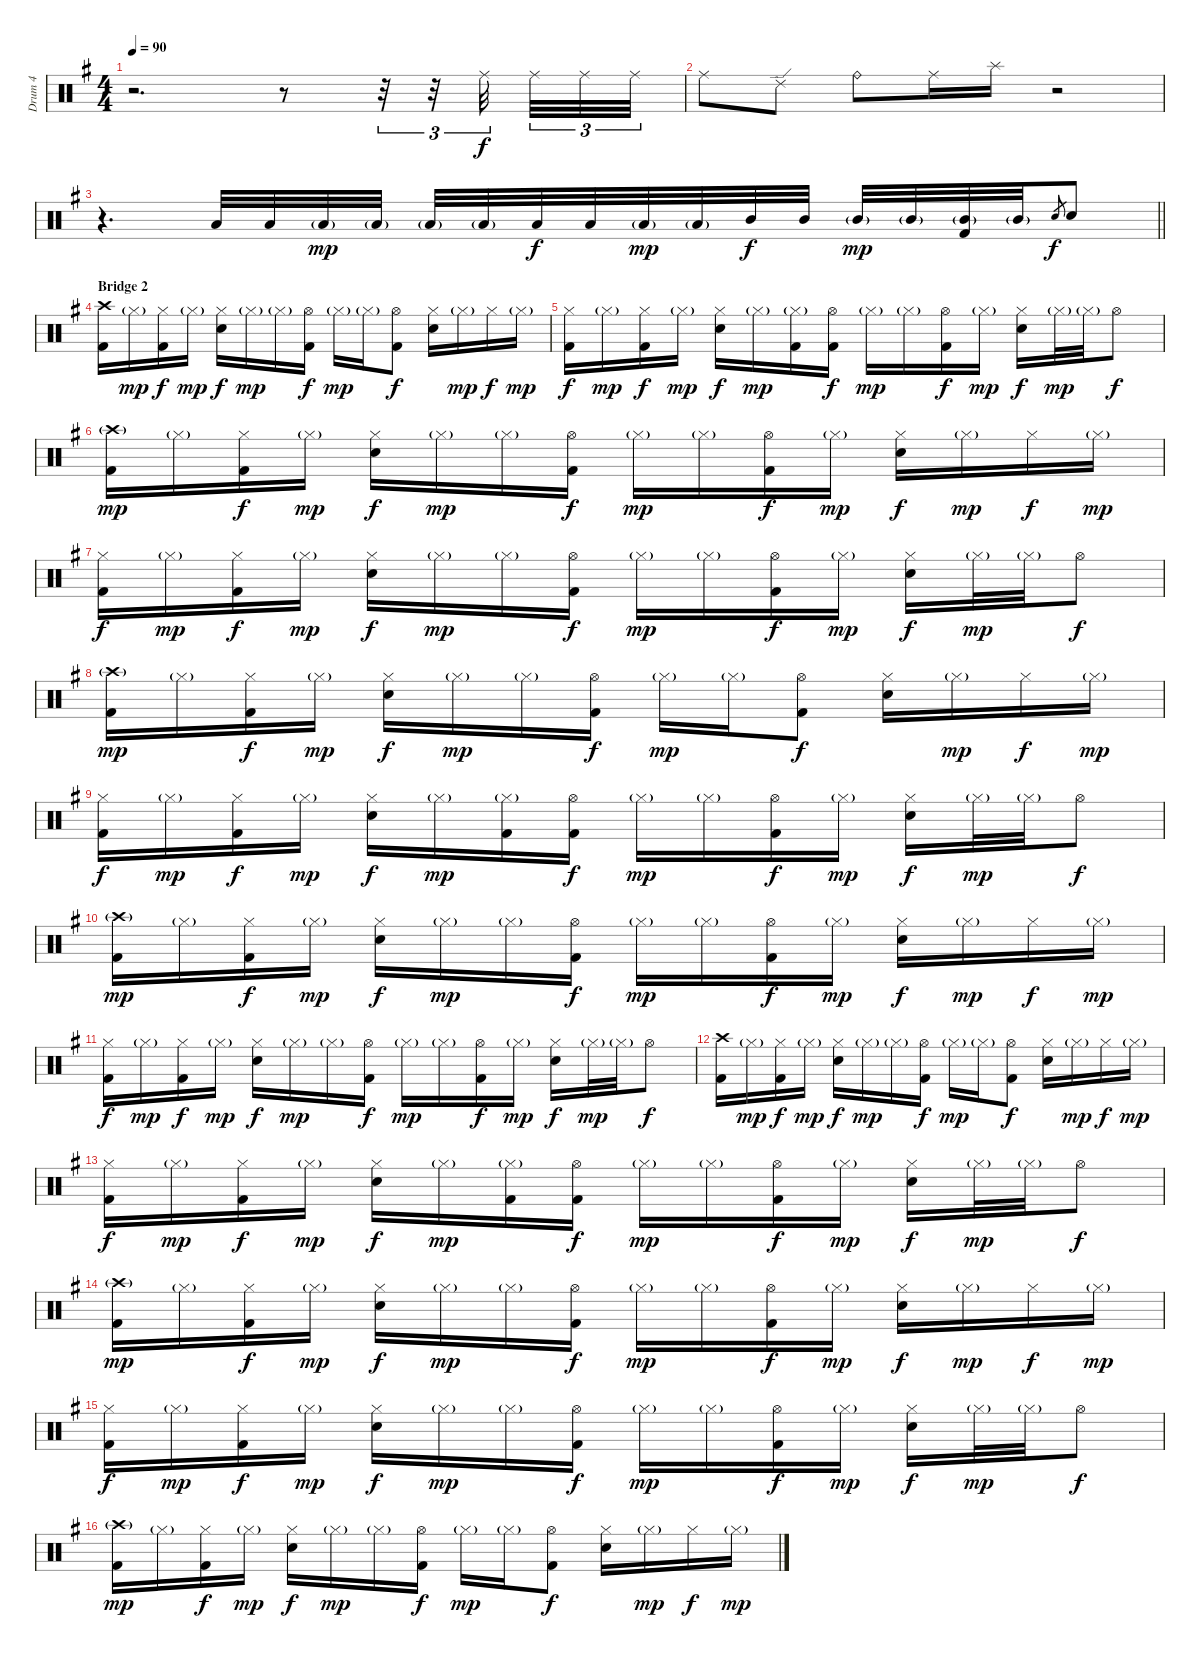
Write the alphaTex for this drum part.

\track ("Drum 4" "Drum 4") {instrument percussion}
\staff {score}
\articulation defaults
\ts (4 4)
\tempo 90
\clef neutral
\ks eminor
r.2{d dy f} r.8 r.32{tu (3 2)} r.32{tu (3 2)} "Ride (middle)".32{tu (3 2) beam splitsecondary} "Ride (middle)".32{tu (3 2)} "Ride (middle)".32{tu (3 2)} "Ride (middle)".32{tu (3 2)} |
"Ride (middle)".8 "Ride (edge) 2".8 "Ride (bell)".8 "Ride (middle)".16 "Splash (hit)".16 r.2 |
\barLineRight lightlight
r.4{d} "Low Tom (hit)".32 "Low Tom (hit)".32 "Low Tom (hit)"{g}.32{dy mp} "Low Tom (hit)"{g}.32 "Low Tom (hit)"{g}.32 "Low Tom (hit)"{g}.32 "Low Tom (hit)".32{dy f} "Low Tom (hit)".32 "Low Tom (hit)"{g}.32{dy mp} "Low Tom (hit)"{g}.32 "Mid Tom (hit)".32{dy f} "Mid Tom (hit)".32 "Mid Tom (hit)"{g}.32{dy mp} "Mid Tom (hit)"{g}.32 ("Mid Tom (hit)"{g} "Kick (hit) 2").32 "Mid Tom (hit)"{g}.32 "Snare (hit) 2".8{gr dy f} "Snare (hit) 2".8 |
\section ("" "Bridge 2")
("Crash high (hit)" "Kick (hit) 2").16 "Hi-Hat (closed)"{g}.16{dy mp} ("Hi-Hat (closed)" "Kick (hit) 2").16{dy f} "Hi-Hat (closed)"{g}.16{dy mp} ("Hi-Hat (closed)" "Snare (hit) 2").16{dy f} "Hi-Hat (closed)"{g}.16{dy mp} "Hi-Hat (closed)"{g}.16 ("Hi-Hat (open)" "Kick (hit) 2").16{dy f} "Hi-Hat (closed)"{g}.16{dy mp} "Hi-Hat (closed)"{g}.16 ("Hi-Hat (open)" "Kick (hit) 2").8{dy f} ("Hi-Hat (closed)" "Snare (hit) 2").16 "Hi-Hat (closed)"{g}.16{dy mp} "Hi-Hat (closed)".16{dy f} "Hi-Hat (closed)"{g}.16{dy mp} |
("Hi-Hat (closed)" "Kick (hit) 2").16{dy f} "Hi-Hat (closed)"{g}.16{dy mp} ("Hi-Hat (closed)" "Kick (hit) 2").16{dy f} "Hi-Hat (closed)"{g}.16{dy mp} ("Hi-Hat (closed)" "Snare (hit) 2").16{dy f} "Hi-Hat (closed)"{g}.16{dy mp} ("Hi-Hat (closed)"{g} "Kick (hit) 2").16 ("Hi-Hat (open)" "Kick (hit) 2").16{dy f} "Hi-Hat (closed)"{g}.16{dy mp} "Hi-Hat (closed)"{g}.16 ("Hi-Hat (open)" "Kick (hit) 2").16{dy f} "Hi-Hat (closed)"{g}.16{dy mp} ("Hi-Hat (closed)" "Snare (hit) 2").16{dy f} "Hi-Hat (closed)"{g}.32{dy mp} "Hi-Hat (closed)"{g}.32 "Hi-Hat (open)".8{dy f} |
("Crash high (hit)"{g} "Kick (hit) 2").16{dy mp} "Hi-Hat (closed)"{g}.16 ("Hi-Hat (closed)" "Kick (hit) 2").16{dy f} "Hi-Hat (closed)"{g}.16{dy mp} ("Hi-Hat (closed)" "Snare (hit) 2").16{dy f} "Hi-Hat (closed)"{g}.16{dy mp} "Hi-Hat (closed)"{g}.16 ("Hi-Hat (open)" "Kick (hit) 2").16{dy f} "Hi-Hat (closed)"{g}.16{dy mp} "Hi-Hat (closed)"{g}.16 ("Hi-Hat (open)" "Kick (hit) 2").16{dy f} "Hi-Hat (closed)"{g}.16{dy mp} ("Hi-Hat (closed)" "Snare (hit) 2").16{dy f} "Hi-Hat (closed)"{g}.16{dy mp} "Hi-Hat (closed)".16{dy f} "Hi-Hat (closed)"{g}.16{dy mp} |
("Hi-Hat (closed)" "Kick (hit) 2").16{dy f} "Hi-Hat (closed)"{g}.16{dy mp} ("Hi-Hat (closed)" "Kick (hit) 2").16{dy f} "Hi-Hat (closed)"{g}.16{dy mp} ("Hi-Hat (closed)" "Snare (hit) 2").16{dy f} "Hi-Hat (closed)"{g}.16{dy mp} "Hi-Hat (closed)"{g}.16 ("Hi-Hat (open)" "Kick (hit) 2").16{dy f} "Hi-Hat (closed)"{g}.16{dy mp} "Hi-Hat (closed)"{g}.16 ("Hi-Hat (open)" "Kick (hit) 2").16{dy f} "Hi-Hat (closed)"{g}.16{dy mp} ("Hi-Hat (closed)" "Snare (hit) 2").16{dy f} "Hi-Hat (closed)"{g}.32{dy mp} "Hi-Hat (closed)"{g}.32 "Hi-Hat (open)".8{dy f} |
("Crash high (hit)"{g} "Kick (hit) 2").16{dy mp} "Hi-Hat (closed)"{g}.16 ("Hi-Hat (closed)" "Kick (hit) 2").16{dy f} "Hi-Hat (closed)"{g}.16{dy mp} ("Hi-Hat (closed)" "Snare (hit) 2").16{dy f} "Hi-Hat (closed)"{g}.16{dy mp} "Hi-Hat (closed)"{g}.16 ("Hi-Hat (open)" "Kick (hit) 2").16{dy f} "Hi-Hat (closed)"{g}.16{dy mp} "Hi-Hat (closed)"{g}.16 ("Hi-Hat (open)" "Kick (hit) 2").8{dy f} ("Hi-Hat (closed)" "Snare (hit) 2").16 "Hi-Hat (closed)"{g}.16{dy mp} "Hi-Hat (closed)".16{dy f} "Hi-Hat (closed)"{g}.16{dy mp} |
("Hi-Hat (closed)" "Kick (hit) 2").16{dy f} "Hi-Hat (closed)"{g}.16{dy mp} ("Hi-Hat (closed)" "Kick (hit) 2").16{dy f} "Hi-Hat (closed)"{g}.16{dy mp} ("Hi-Hat (closed)" "Snare (hit) 2").16{dy f} "Hi-Hat (closed)"{g}.16{dy mp} ("Hi-Hat (closed)"{g} "Kick (hit) 2").16 ("Hi-Hat (open)" "Kick (hit) 2").16{dy f} "Hi-Hat (closed)"{g}.16{dy mp} "Hi-Hat (closed)"{g}.16 ("Hi-Hat (open)" "Kick (hit) 2").16{dy f} "Hi-Hat (closed)"{g}.16{dy mp} ("Hi-Hat (closed)" "Snare (hit) 2").16{dy f} "Hi-Hat (closed)"{g}.32{dy mp} "Hi-Hat (closed)"{g}.32 "Hi-Hat (open)".8{dy f} |
("Crash high (hit)"{g} "Kick (hit) 2").16{dy mp} "Hi-Hat (closed)"{g}.16 ("Hi-Hat (closed)" "Kick (hit) 2").16{dy f} "Hi-Hat (closed)"{g}.16{dy mp} ("Hi-Hat (closed)" "Snare (hit) 2").16{dy f} "Hi-Hat (closed)"{g}.16{dy mp} "Hi-Hat (closed)"{g}.16 ("Hi-Hat (open)" "Kick (hit) 2").16{dy f} "Hi-Hat (closed)"{g}.16{dy mp} "Hi-Hat (closed)"{g}.16 ("Hi-Hat (open)" "Kick (hit) 2").16{dy f} "Hi-Hat (closed)"{g}.16{dy mp} ("Hi-Hat (closed)" "Snare (hit) 2").16{dy f} "Hi-Hat (closed)"{g}.16{dy mp} "Hi-Hat (closed)".16{dy f} "Hi-Hat (closed)"{g}.16{dy mp} |
("Hi-Hat (closed)" "Kick (hit) 2").16{dy f} "Hi-Hat (closed)"{g}.16{dy mp} ("Hi-Hat (closed)" "Kick (hit) 2").16{dy f} "Hi-Hat (closed)"{g}.16{dy mp} ("Hi-Hat (closed)" "Snare (hit) 2").16{dy f} "Hi-Hat (closed)"{g}.16{dy mp} "Hi-Hat (closed)"{g}.16 ("Hi-Hat (open)" "Kick (hit) 2").16{dy f} "Hi-Hat (closed)"{g}.16{dy mp} "Hi-Hat (closed)"{g}.16 ("Hi-Hat (open)" "Kick (hit) 2").16{dy f} "Hi-Hat (closed)"{g}.16{dy mp} ("Hi-Hat (closed)" "Snare (hit) 2").16{dy f} "Hi-Hat (closed)"{g}.32{dy mp} "Hi-Hat (closed)"{g}.32 "Hi-Hat (open)".8{dy f} |
("Crash high (hit)" "Kick (hit) 2").16 "Hi-Hat (closed)"{g}.16{dy mp} ("Hi-Hat (closed)" "Kick (hit) 2").16{dy f} "Hi-Hat (closed)"{g}.16{dy mp} ("Hi-Hat (closed)" "Snare (hit) 2").16{dy f} "Hi-Hat (closed)"{g}.16{dy mp} "Hi-Hat (closed)"{g}.16 ("Hi-Hat (open)" "Kick (hit) 2").16{dy f} "Hi-Hat (closed)"{g}.16{dy mp} "Hi-Hat (closed)"{g}.16 ("Hi-Hat (open)" "Kick (hit) 2").8{dy f} ("Hi-Hat (closed)" "Snare (hit) 2").16 "Hi-Hat (closed)"{g}.16{dy mp} "Hi-Hat (closed)".16{dy f} "Hi-Hat (closed)"{g}.16{dy mp} |
("Hi-Hat (closed)" "Kick (hit) 2").16{dy f} "Hi-Hat (closed)"{g}.16{dy mp} ("Hi-Hat (closed)" "Kick (hit) 2").16{dy f} "Hi-Hat (closed)"{g}.16{dy mp} ("Hi-Hat (closed)" "Snare (hit) 2").16{dy f} "Hi-Hat (closed)"{g}.16{dy mp} ("Hi-Hat (closed)"{g} "Kick (hit) 2").16 ("Hi-Hat (open)" "Kick (hit) 2").16{dy f} "Hi-Hat (closed)"{g}.16{dy mp} "Hi-Hat (closed)"{g}.16 ("Hi-Hat (open)" "Kick (hit) 2").16{dy f} "Hi-Hat (closed)"{g}.16{dy mp} ("Hi-Hat (closed)" "Snare (hit) 2").16{dy f} "Hi-Hat (closed)"{g}.32{dy mp} "Hi-Hat (closed)"{g}.32 "Hi-Hat (open)".8{dy f} |
("Crash high (hit)"{g} "Kick (hit) 2").16{dy mp} "Hi-Hat (closed)"{g}.16 ("Hi-Hat (closed)" "Kick (hit) 2").16{dy f} "Hi-Hat (closed)"{g}.16{dy mp} ("Hi-Hat (closed)" "Snare (hit) 2").16{dy f} "Hi-Hat (closed)"{g}.16{dy mp} "Hi-Hat (closed)"{g}.16 ("Hi-Hat (open)" "Kick (hit) 2").16{dy f} "Hi-Hat (closed)"{g}.16{dy mp} "Hi-Hat (closed)"{g}.16 ("Hi-Hat (open)" "Kick (hit) 2").16{dy f} "Hi-Hat (closed)"{g}.16{dy mp} ("Hi-Hat (closed)" "Snare (hit) 2").16{dy f} "Hi-Hat (closed)"{g}.16{dy mp} "Hi-Hat (closed)".16{dy f} "Hi-Hat (closed)"{g}.16{dy mp} |
("Hi-Hat (closed)" "Kick (hit) 2").16{dy f} "Hi-Hat (closed)"{g}.16{dy mp} ("Hi-Hat (closed)" "Kick (hit) 2").16{dy f} "Hi-Hat (closed)"{g}.16{dy mp} ("Hi-Hat (closed)" "Snare (hit) 2").16{dy f} "Hi-Hat (closed)"{g}.16{dy mp} "Hi-Hat (closed)"{g}.16 ("Hi-Hat (open)" "Kick (hit) 2").16{dy f} "Hi-Hat (closed)"{g}.16{dy mp} "Hi-Hat (closed)"{g}.16 ("Hi-Hat (open)" "Kick (hit) 2").16{dy f} "Hi-Hat (closed)"{g}.16{dy mp} ("Hi-Hat (closed)" "Snare (hit) 2").16{dy f} "Hi-Hat (closed)"{g}.32{dy mp} "Hi-Hat (closed)"{g}.32 "Hi-Hat (open)".8{dy f} |
("Crash high (hit)"{g} "Kick (hit) 2").16{dy mp} "Hi-Hat (closed)"{g}.16 ("Hi-Hat (closed)" "Kick (hit) 2").16{dy f} "Hi-Hat (closed)"{g}.16{dy mp} ("Hi-Hat (closed)" "Snare (hit) 2").16{dy f} "Hi-Hat (closed)"{g}.16{dy mp} "Hi-Hat (closed)"{g}.16 ("Hi-Hat (open)" "Kick (hit) 2").16{dy f} "Hi-Hat (closed)"{g}.16{dy mp} "Hi-Hat (closed)"{g}.16 ("Hi-Hat (open)" "Kick (hit) 2").8{dy f} ("Hi-Hat (closed)" "Snare (hit) 2").16 "Hi-Hat (closed)"{g}.16{dy mp} "Hi-Hat (closed)".16{dy f} "Hi-Hat (closed)"{g}.16{dy mp}
